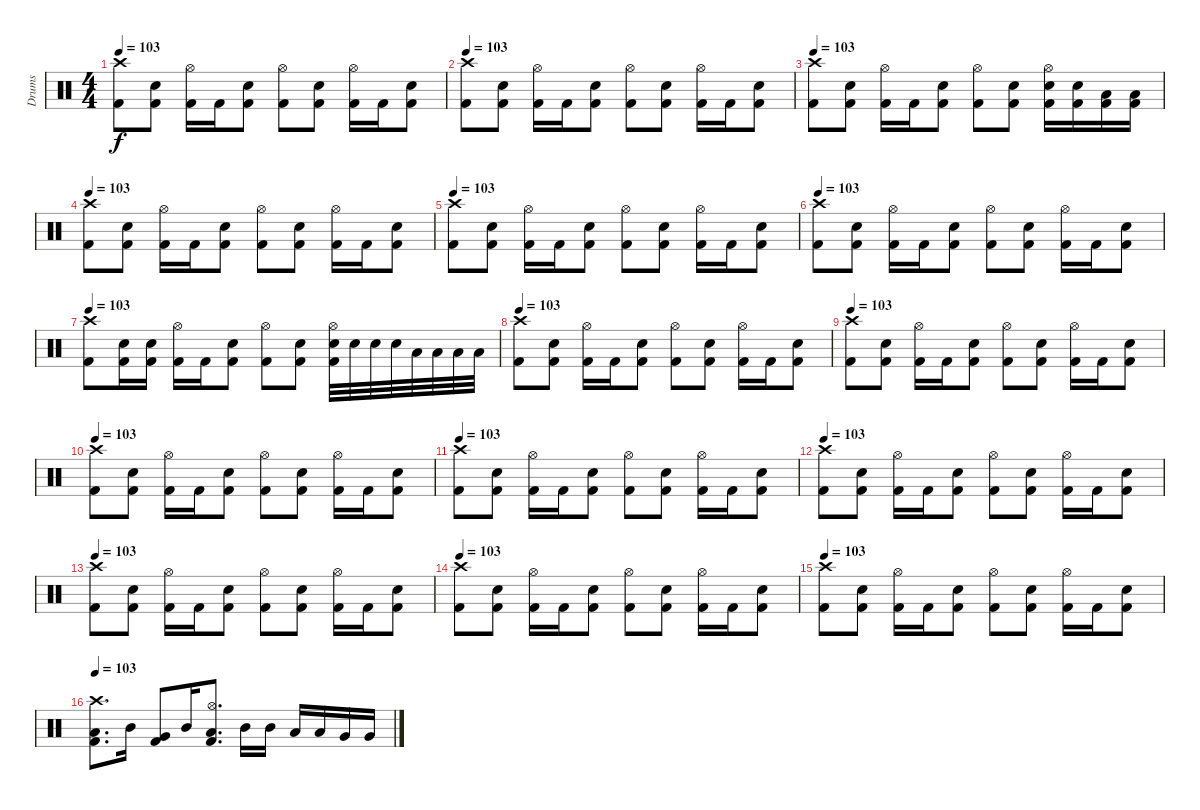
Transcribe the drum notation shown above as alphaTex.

\track ("Drums" "Drums") {instrument percussion}
\staff {score}
\articulation defaults
\ts (4 4)
\tempo 103
\clef neutral
\ks c
("Crash high (hit)" "Kick (hit) 2").8{dy f} ("Snare (hit) 2" "Kick (hit) 2").8 ("Hi-Hat (open)" "Kick (hit) 2").16 "Kick (hit) 2".16 ("Snare (hit) 2" "Kick (hit) 2").8 ("Hi-Hat (open)" "Kick (hit) 2").8 ("Snare (hit) 2" "Kick (hit) 2").8 ("Hi-Hat (open)" "Kick (hit) 2").16 "Kick (hit) 2".16 ("Snare (hit) 2" "Kick (hit) 2").8 |
\tempo 103
("Crash high (hit)" "Kick (hit) 2").8 ("Snare (hit) 2" "Kick (hit) 2").8 ("Hi-Hat (open)" "Kick (hit) 2").16 "Kick (hit) 2".16 ("Snare (hit) 2" "Kick (hit) 2").8 ("Hi-Hat (open)" "Kick (hit) 2").8 ("Snare (hit) 2" "Kick (hit) 2").8 ("Hi-Hat (open)" "Kick (hit) 2").16 "Kick (hit) 2".16 ("Snare (hit) 2" "Kick (hit) 2").8 |
\tempo 103
("Crash high (hit)" "Kick (hit) 2").8 ("Snare (hit) 2" "Kick (hit) 2").8 ("Hi-Hat (open)" "Kick (hit) 2").16 "Kick (hit) 2".16 ("Snare (hit) 2" "Kick (hit) 2").8 ("Hi-Hat (open)" "Kick (hit) 2").8 ("Snare (hit) 2" "Kick (hit) 2").8 ("Hi-Hat (open)" "Snare (hit) 2" "Kick (hit) 2").16 ("Snare (hit) 2" "Kick (hit) 2").16 ("Low Tom (hit)" "Kick (hit) 2").16 ("Low Tom (hit)" "Kick (hit) 2").16 |
\tempo 103
("Crash high (hit)" "Kick (hit) 2").8 ("Snare (hit) 2" "Kick (hit) 2").8 ("Hi-Hat (open)" "Kick (hit) 2").16 "Kick (hit) 2".16 ("Snare (hit) 2" "Kick (hit) 2").8 ("Hi-Hat (open)" "Kick (hit) 2").8 ("Snare (hit) 2" "Kick (hit) 2").8 ("Hi-Hat (open)" "Kick (hit) 2").16 "Kick (hit) 2".16 ("Snare (hit) 2" "Kick (hit) 2").8 |
\tempo 103
("Crash high (hit)" "Kick (hit) 2").8 ("Snare (hit) 2" "Kick (hit) 2").8 ("Hi-Hat (open)" "Kick (hit) 2").16 "Kick (hit) 2".16 ("Snare (hit) 2" "Kick (hit) 2").8 ("Hi-Hat (open)" "Kick (hit) 2").8 ("Snare (hit) 2" "Kick (hit) 2").8 ("Hi-Hat (open)" "Kick (hit) 2").16 "Kick (hit) 2".16 ("Snare (hit) 2" "Kick (hit) 2").8 |
\tempo 103
("Crash high (hit)" "Kick (hit) 2").8 ("Snare (hit) 2" "Kick (hit) 2").8 ("Hi-Hat (open)" "Kick (hit) 2").16 "Kick (hit) 2".16 ("Snare (hit) 2" "Kick (hit) 2").8 ("Hi-Hat (open)" "Kick (hit) 2").8 ("Snare (hit) 2" "Kick (hit) 2").8 ("Hi-Hat (open)" "Kick (hit) 2").16 "Kick (hit) 2".16 ("Snare (hit) 2" "Kick (hit) 2").8 |
\tempo 103
("Crash high (hit)" "Kick (hit) 2").8 ("Snare (hit) 2" "Kick (hit) 2").16 ("Snare (hit) 2" "Kick (hit) 2").16 ("Hi-Hat (open)" "Kick (hit) 2").16 "Kick (hit) 2".16 ("Snare (hit) 2" "Kick (hit) 2").8 ("Hi-Hat (open)" "Kick (hit) 2").8 ("Snare (hit) 2" "Kick (hit) 2").8 ("Hi-Hat (open)" "Snare (hit) 2" "Kick (hit) 2").32 "Snare (hit) 2".32 "Snare (hit) 2".32 "Snare (hit) 2".32 "Low Tom (hit)".32 "Low Tom (hit)".32 "Low Tom (hit)".32 "Low Tom (hit)".32 |
\tempo 103
("Crash high (hit)" "Kick (hit) 2").8 ("Snare (hit) 2" "Kick (hit) 2").8 ("Hi-Hat (open)" "Kick (hit) 2").16 "Kick (hit) 2".16 ("Snare (hit) 2" "Kick (hit) 2").8 ("Hi-Hat (open)" "Kick (hit) 2").8 ("Snare (hit) 2" "Kick (hit) 2").8 ("Hi-Hat (open)" "Kick (hit) 2").16 "Kick (hit) 2".16 ("Snare (hit) 2" "Kick (hit) 2").8 |
\tempo 103
("Crash high (hit)" "Kick (hit) 2").8 ("Snare (hit) 2" "Kick (hit) 2").8 ("Hi-Hat (open)" "Kick (hit) 2").16 "Kick (hit) 2".16 ("Snare (hit) 2" "Kick (hit) 2").8 ("Hi-Hat (open)" "Kick (hit) 2").8 ("Snare (hit) 2" "Kick (hit) 2").8 ("Hi-Hat (open)" "Kick (hit) 2").16 "Kick (hit) 2".16 ("Snare (hit) 2" "Kick (hit) 2").8 |
\tempo 103
("Crash high (hit)" "Kick (hit) 2").8 ("Snare (hit) 2" "Kick (hit) 2").8 ("Hi-Hat (open)" "Kick (hit) 2").16 "Kick (hit) 2".16 ("Snare (hit) 2" "Kick (hit) 2").8 ("Hi-Hat (open)" "Kick (hit) 2").8 ("Snare (hit) 2" "Kick (hit) 2").8 ("Hi-Hat (open)" "Kick (hit) 2").16 "Kick (hit) 2".16 ("Snare (hit) 2" "Kick (hit) 2").8 |
\tempo 103
("Crash high (hit)" "Kick (hit) 2").8 ("Snare (hit) 2" "Kick (hit) 2").8 ("Hi-Hat (open)" "Kick (hit) 2").16 "Kick (hit) 2".16 ("Snare (hit) 2" "Kick (hit) 2").8 ("Hi-Hat (open)" "Kick (hit) 2").8 ("Snare (hit) 2" "Kick (hit) 2").8 ("Hi-Hat (open)" "Kick (hit) 2").16 "Kick (hit) 2".16 ("Snare (hit) 2" "Kick (hit) 2").8 |
\tempo 103
("Crash high (hit)" "Kick (hit) 2").8 ("Snare (hit) 2" "Kick (hit) 2").8 ("Hi-Hat (open)" "Kick (hit) 2").16 "Kick (hit) 2".16 ("Snare (hit) 2" "Kick (hit) 2").8 ("Hi-Hat (open)" "Kick (hit) 2").8 ("Snare (hit) 2" "Kick (hit) 2").8 ("Hi-Hat (open)" "Kick (hit) 2").16 "Kick (hit) 2".16 ("Snare (hit) 2" "Kick (hit) 2").8 |
\tempo 103
("Crash high (hit)" "Kick (hit) 2").8 ("Snare (hit) 2" "Kick (hit) 2").8 ("Hi-Hat (open)" "Kick (hit) 2").16 "Kick (hit) 2".16 ("Snare (hit) 2" "Kick (hit) 2").8 ("Hi-Hat (open)" "Kick (hit) 2").8 ("Snare (hit) 2" "Kick (hit) 2").8 ("Hi-Hat (open)" "Kick (hit) 2").16 "Kick (hit) 2".16 ("Snare (hit) 2" "Kick (hit) 2").8 |
\tempo 103
("Crash high (hit)" "Kick (hit) 2").8 ("Snare (hit) 2" "Kick (hit) 2").8 ("Hi-Hat (open)" "Kick (hit) 2").16 "Kick (hit) 2".16 ("Snare (hit) 2" "Kick (hit) 2").8 ("Hi-Hat (open)" "Kick (hit) 2").8 ("Snare (hit) 2" "Kick (hit) 2").8 ("Hi-Hat (open)" "Kick (hit) 2").16 "Kick (hit) 2".16 ("Snare (hit) 2" "Kick (hit) 2").8 |
\tempo 103
("Crash high (hit)" "Kick (hit) 2").8 ("Snare (hit) 2" "Kick (hit) 2").8 ("Hi-Hat (open)" "Kick (hit) 2").16 "Kick (hit) 2".16 ("Snare (hit) 2" "Kick (hit) 2").8 ("Hi-Hat (open)" "Kick (hit) 2").8 ("Snare (hit) 2" "Kick (hit) 2").8 ("Hi-Hat (open)" "Kick (hit) 2").16 "Kick (hit) 2".16 ("Snare (hit) 2" "Kick (hit) 2").8 |
\tempo 103
("Crash high (hit)" "Low Floor Tom (hit)" "Kick (hit) 2").8{d} "Mid Tom (hit)".16 ("Very Low Tom (hit)" "Kick (hit) 2").8 "Mid Tom (hit)".16 ("Hi-Hat (open)" "Low Floor Tom (hit)" "Kick (hit) 2").8{d} "Mid Tom (hit)".16 "Mid Tom (hit)".16 "Low Tom (hit)".16 "Low Tom (hit)".16 "Very Low Tom (hit)".16 "Very Low Tom (hit)".16
